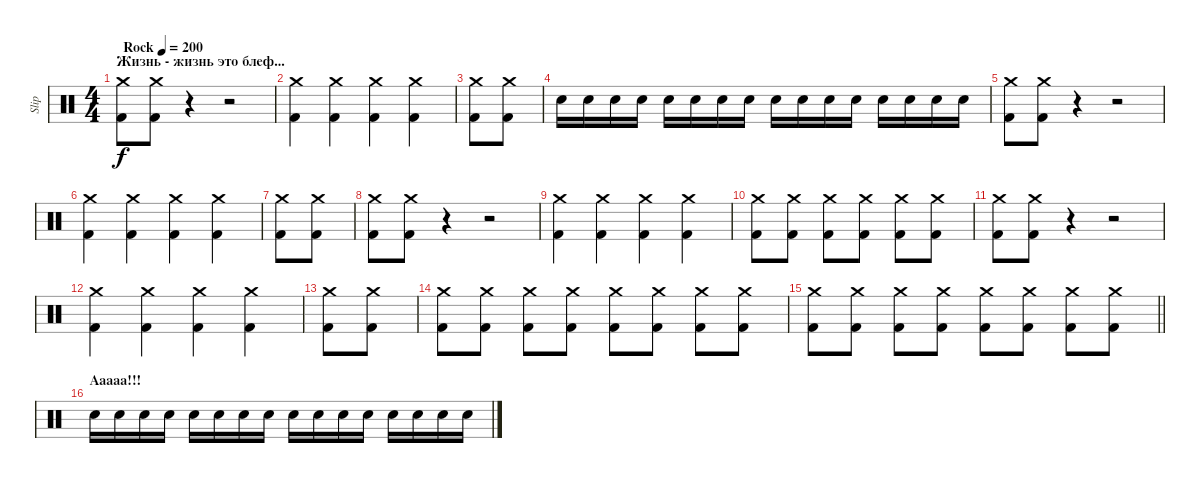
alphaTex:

\track ("Slip" "Slip") {instrument percussion}
\staff {score}
\articulation defaults
\ts (4 4)
\section ("" "Жизнь - жизнь это блеф...")
\tempo (200 "Rock")
\clef neutral
\ks c
("Kick (hit) 2" "Crash medium (hit)").8{dy f} ("Kick (hit) 2" "Crash medium (hit)").8 r.4 r.2 |
("Kick (hit) 2" "Crash medium (hit)").4 ("Kick (hit) 2" "Crash medium (hit)").4 ("Kick (hit) 2" "Crash medium (hit)").4 ("Kick (hit) 2" "Crash medium (hit)").4 |
("Kick (hit) 2" "Crash medium (hit)").8 ("Kick (hit) 2" "Crash medium (hit)").8 |
"Electric Snare (hit)".16 "Electric Snare (hit)".16 "Electric Snare (hit)".16 "Electric Snare (hit)".16 "Electric Snare (hit)".16 "Electric Snare (hit)".16 "Electric Snare (hit)".16 "Electric Snare (hit)".16 "Electric Snare (hit)".16 "Electric Snare (hit)".16 "Electric Snare (hit)".16 "Electric Snare (hit)".16 "Electric Snare (hit)".16 "Electric Snare (hit)".16 "Electric Snare (hit)".16 "Electric Snare (hit)".16 |
("Kick (hit) 2" "Crash medium (hit)").8 ("Kick (hit) 2" "Crash medium (hit)").8 r.4 r.2 |
("Kick (hit) 2" "Crash medium (hit)").4 ("Kick (hit) 2" "Crash medium (hit)").4 ("Kick (hit) 2" "Crash medium (hit)").4 ("Kick (hit) 2" "Crash medium (hit)").4 |
("Kick (hit) 2" "Crash medium (hit)").8 ("Kick (hit) 2" "Crash medium (hit)").8 |
("Kick (hit) 2" "Crash medium (hit)").8 ("Kick (hit) 2" "Crash medium (hit)").8 r.4 r.2 |
("Kick (hit) 2" "Crash medium (hit)").4 ("Kick (hit) 2" "Crash medium (hit)").4 ("Kick (hit) 2" "Crash medium (hit)").4 ("Kick (hit) 2" "Crash medium (hit)").4 |
("Kick (hit) 2" "Crash medium (hit)").8 ("Kick (hit) 2" "Crash medium (hit)").8 ("Kick (hit) 2" "Crash medium (hit)").8 ("Kick (hit) 2" "Crash medium (hit)").8 ("Kick (hit) 2" "Crash medium (hit)").8 ("Kick (hit) 2" "Crash medium (hit)").8 |
("Kick (hit) 2" "Crash medium (hit)").8 ("Kick (hit) 2" "Crash medium (hit)").8 r.4 r.2 |
("Kick (hit) 2" "Crash medium (hit)").4 ("Kick (hit) 2" "Crash medium (hit)").4 ("Kick (hit) 2" "Crash medium (hit)").4 ("Kick (hit) 2" "Crash medium (hit)").4 |
("Kick (hit) 2" "Crash medium (hit)").8 ("Kick (hit) 2" "Crash medium (hit)").8 |
("Kick (hit) 2" "Crash medium (hit)").8 ("Kick (hit) 2" "Crash medium (hit)").8 ("Kick (hit) 2" "Crash medium (hit)").8 ("Kick (hit) 2" "Crash medium (hit)").8 ("Kick (hit) 2" "Crash medium (hit)").8 ("Kick (hit) 2" "Crash medium (hit)").8 ("Kick (hit) 2" "Crash medium (hit)").8 ("Kick (hit) 2" "Crash medium (hit)").8 |
\barLineRight lightlight
("Kick (hit) 2" "Crash medium (hit)").8 ("Kick (hit) 2" "Crash medium (hit)").8 ("Kick (hit) 2" "Crash medium (hit)").8 ("Kick (hit) 2" "Crash medium (hit)").8 ("Kick (hit) 2" "Crash medium (hit)").8 ("Kick (hit) 2" "Crash medium (hit)").8 ("Kick (hit) 2" "Crash medium (hit)").8 ("Kick (hit) 2" "Crash medium (hit)").8 |
\section ("" "Ааааа!!!")
"Electric Snare (hit)".16 "Electric Snare (hit)".16 "Electric Snare (hit)".16 "Electric Snare (hit)".16 "Electric Snare (hit)".16 "Electric Snare (hit)".16 "Electric Snare (hit)".16 "Electric Snare (hit)".16 "Electric Snare (hit)".16 "Electric Snare (hit)".16 "Electric Snare (hit)".16 "Electric Snare (hit)".16 "Electric Snare (hit)".16 "Electric Snare (hit)".16 "Electric Snare (hit)".16 "Electric Snare (hit)".16
